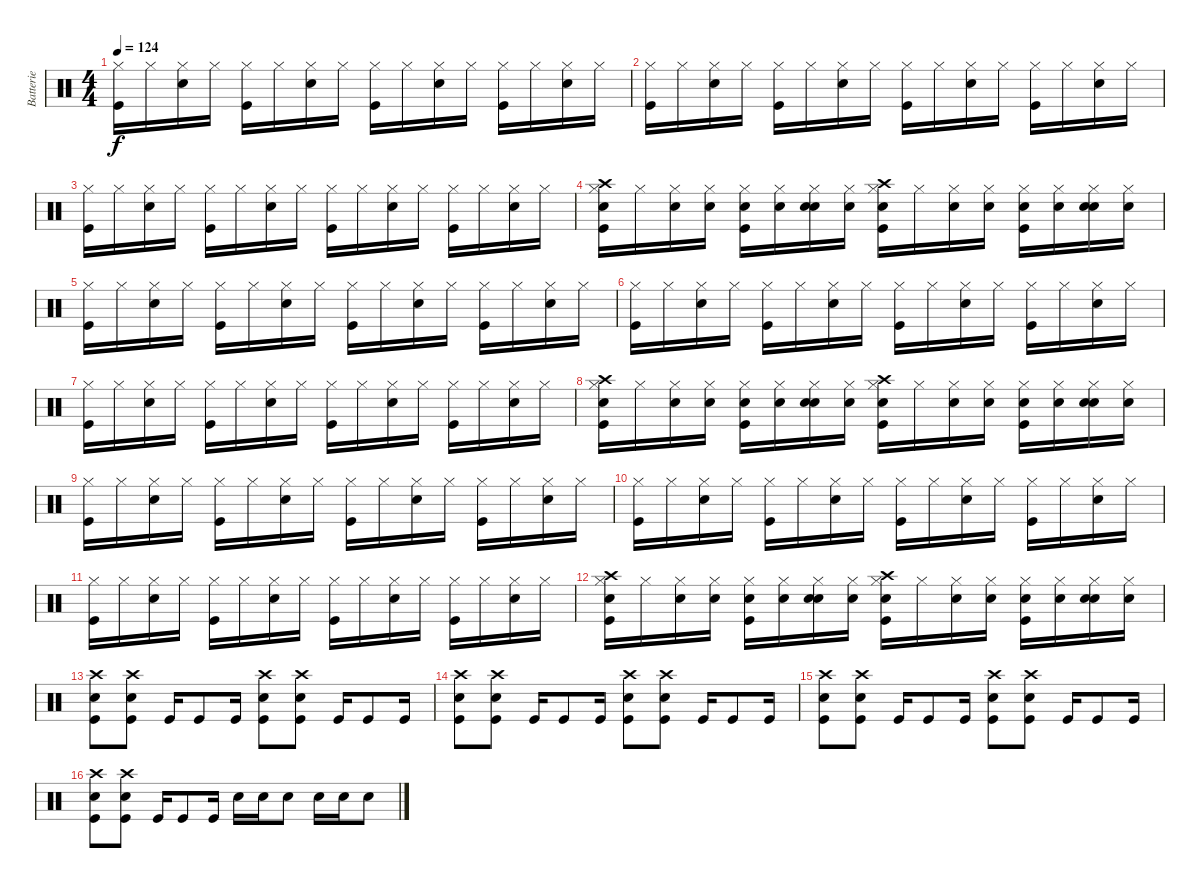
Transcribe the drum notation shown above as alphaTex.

\track ("Batterie" "Batterie") {instrument percussion}
\staff {score}
\articulation defaults
\ts (4 4)
\tempo 124
\clef neutral
\ks c
("Hi-Hat (closed)" "Kick (hit)").16{dy f} "Hi-Hat (closed)".16 ("Hi-Hat (closed)" "Snare (hit) 2").16 "Hi-Hat (closed)".16 ("Hi-Hat (closed)" "Kick (hit)").16 "Hi-Hat (closed)".16 ("Hi-Hat (closed)" "Snare (hit) 2").16 "Hi-Hat (closed)".16 ("Hi-Hat (closed)" "Kick (hit)").16 "Hi-Hat (closed)".16 ("Hi-Hat (closed)" "Snare (hit) 2").16 "Hi-Hat (closed)".16 ("Hi-Hat (closed)" "Kick (hit)").16 "Hi-Hat (closed)".16 ("Hi-Hat (closed)" "Snare (hit) 2").16 "Hi-Hat (closed)".16 |
("Hi-Hat (closed)" "Kick (hit)").16 "Hi-Hat (closed)".16 ("Hi-Hat (closed)" "Snare (hit) 2").16 "Hi-Hat (closed)".16 ("Hi-Hat (closed)" "Kick (hit)").16 "Hi-Hat (closed)".16 ("Hi-Hat (closed)" "Snare (hit) 2").16 "Hi-Hat (closed)".16 ("Hi-Hat (closed)" "Kick (hit)").16 "Hi-Hat (closed)".16 ("Hi-Hat (closed)" "Snare (hit) 2").16 "Hi-Hat (closed)".16 ("Hi-Hat (closed)" "Kick (hit)").16 "Hi-Hat (closed)".16 ("Hi-Hat (closed)" "Snare (hit) 2").16 "Hi-Hat (closed)".16 |
("Hi-Hat (closed)" "Kick (hit)").16 "Hi-Hat (closed)".16 ("Hi-Hat (closed)" "Snare (hit) 2").16 "Hi-Hat (closed)".16 ("Hi-Hat (closed)" "Kick (hit)").16 "Hi-Hat (closed)".16 ("Hi-Hat (closed)" "Snare (hit) 2").16 "Hi-Hat (closed)".16 ("Hi-Hat (closed)" "Kick (hit)").16 "Hi-Hat (closed)".16 ("Hi-Hat (closed)" "Snare (hit) 2").16 "Hi-Hat (closed)".16 ("Hi-Hat (closed)" "Kick (hit)").16 "Hi-Hat (closed)".16 ("Hi-Hat (closed)" "Snare (hit) 2").16 "Hi-Hat (closed)".16 |
("Hi-Hat (closed)" "Crash high (hit)" "Electric Snare (hit)" "Kick (hit)").16 "Hi-Hat (closed)".16 ("Hi-Hat (closed)" "Snare (hit) 2").16 ("Hi-Hat (closed)" "Electric Snare (hit)").16 ("Hi-Hat (closed)" "Electric Snare (hit)" "Kick (hit)").16 ("Hi-Hat (closed)" "Electric Snare (hit)").16 ("Hi-Hat (closed)" "Electric Snare (hit)" "Snare (hit) 2").16 ("Hi-Hat (closed)" "Electric Snare (hit)").16 ("Hi-Hat (closed)" "Crash high (hit)" "Electric Snare (hit)" "Kick (hit)").16 "Hi-Hat (closed)".16 ("Hi-Hat (closed)" "Snare (hit) 2").16 ("Hi-Hat (closed)" "Electric Snare (hit)").16 ("Hi-Hat (closed)" "Electric Snare (hit)" "Kick (hit)").16 ("Hi-Hat (closed)" "Electric Snare (hit)").16 ("Hi-Hat (closed)" "Electric Snare (hit)" "Snare (hit) 2").16 ("Hi-Hat (closed)" "Electric Snare (hit)").16 |
("Hi-Hat (closed)" "Kick (hit)").16 "Hi-Hat (closed)".16 ("Hi-Hat (closed)" "Snare (hit) 2").16 "Hi-Hat (closed)".16 ("Hi-Hat (closed)" "Kick (hit)").16 "Hi-Hat (closed)".16 ("Hi-Hat (closed)" "Snare (hit) 2").16 "Hi-Hat (closed)".16 ("Hi-Hat (closed)" "Kick (hit)").16 "Hi-Hat (closed)".16 ("Hi-Hat (closed)" "Snare (hit) 2").16 "Hi-Hat (closed)".16 ("Hi-Hat (closed)" "Kick (hit)").16 "Hi-Hat (closed)".16 ("Hi-Hat (closed)" "Snare (hit) 2").16 "Hi-Hat (closed)".16 |
("Hi-Hat (closed)" "Kick (hit)").16 "Hi-Hat (closed)".16 ("Hi-Hat (closed)" "Snare (hit) 2").16 "Hi-Hat (closed)".16 ("Hi-Hat (closed)" "Kick (hit)").16 "Hi-Hat (closed)".16 ("Hi-Hat (closed)" "Snare (hit) 2").16 "Hi-Hat (closed)".16 ("Hi-Hat (closed)" "Kick (hit)").16 "Hi-Hat (closed)".16 ("Hi-Hat (closed)" "Snare (hit) 2").16 "Hi-Hat (closed)".16 ("Hi-Hat (closed)" "Kick (hit)").16 "Hi-Hat (closed)".16 ("Hi-Hat (closed)" "Snare (hit) 2").16 "Hi-Hat (closed)".16 |
("Hi-Hat (closed)" "Kick (hit)").16 "Hi-Hat (closed)".16 ("Hi-Hat (closed)" "Snare (hit) 2").16 "Hi-Hat (closed)".16 ("Hi-Hat (closed)" "Kick (hit)").16 "Hi-Hat (closed)".16 ("Hi-Hat (closed)" "Snare (hit) 2").16 "Hi-Hat (closed)".16 ("Hi-Hat (closed)" "Kick (hit)").16 "Hi-Hat (closed)".16 ("Hi-Hat (closed)" "Snare (hit) 2").16 "Hi-Hat (closed)".16 ("Hi-Hat (closed)" "Kick (hit)").16 "Hi-Hat (closed)".16 ("Hi-Hat (closed)" "Snare (hit) 2").16 "Hi-Hat (closed)".16 |
("Hi-Hat (closed)" "Crash high (hit)" "Electric Snare (hit)" "Kick (hit)").16 "Hi-Hat (closed)".16 ("Hi-Hat (closed)" "Snare (hit) 2").16 ("Hi-Hat (closed)" "Electric Snare (hit)").16 ("Hi-Hat (closed)" "Electric Snare (hit)" "Kick (hit)").16 ("Hi-Hat (closed)" "Electric Snare (hit)").16 ("Hi-Hat (closed)" "Electric Snare (hit)" "Snare (hit) 2").16 ("Hi-Hat (closed)" "Electric Snare (hit)").16 ("Hi-Hat (closed)" "Crash high (hit)" "Electric Snare (hit)" "Kick (hit)").16 "Hi-Hat (closed)".16 ("Hi-Hat (closed)" "Snare (hit) 2").16 ("Hi-Hat (closed)" "Electric Snare (hit)").16 ("Hi-Hat (closed)" "Electric Snare (hit)" "Kick (hit)").16 ("Hi-Hat (closed)" "Electric Snare (hit)").16 ("Hi-Hat (closed)" "Electric Snare (hit)" "Snare (hit) 2").16 ("Hi-Hat (closed)" "Electric Snare (hit)").16 |
("Hi-Hat (closed)" "Kick (hit)").16 "Hi-Hat (closed)".16 ("Hi-Hat (closed)" "Snare (hit) 2").16 "Hi-Hat (closed)".16 ("Hi-Hat (closed)" "Kick (hit)").16 "Hi-Hat (closed)".16 ("Hi-Hat (closed)" "Snare (hit) 2").16 "Hi-Hat (closed)".16 ("Hi-Hat (closed)" "Kick (hit)").16 "Hi-Hat (closed)".16 ("Hi-Hat (closed)" "Snare (hit) 2").16 "Hi-Hat (closed)".16 ("Hi-Hat (closed)" "Kick (hit)").16 "Hi-Hat (closed)".16 ("Hi-Hat (closed)" "Snare (hit) 2").16 "Hi-Hat (closed)".16 |
("Hi-Hat (closed)" "Kick (hit)").16 "Hi-Hat (closed)".16 ("Hi-Hat (closed)" "Snare (hit) 2").16 "Hi-Hat (closed)".16 ("Hi-Hat (closed)" "Kick (hit)").16 "Hi-Hat (closed)".16 ("Hi-Hat (closed)" "Snare (hit) 2").16 "Hi-Hat (closed)".16 ("Hi-Hat (closed)" "Kick (hit)").16 "Hi-Hat (closed)".16 ("Hi-Hat (closed)" "Snare (hit) 2").16 "Hi-Hat (closed)".16 ("Hi-Hat (closed)" "Kick (hit)").16 "Hi-Hat (closed)".16 ("Hi-Hat (closed)" "Snare (hit) 2").16 "Hi-Hat (closed)".16 |
("Hi-Hat (closed)" "Kick (hit)").16 "Hi-Hat (closed)".16 ("Hi-Hat (closed)" "Snare (hit) 2").16 "Hi-Hat (closed)".16 ("Hi-Hat (closed)" "Kick (hit)").16 "Hi-Hat (closed)".16 ("Hi-Hat (closed)" "Snare (hit) 2").16 "Hi-Hat (closed)".16 ("Hi-Hat (closed)" "Kick (hit)").16 "Hi-Hat (closed)".16 ("Hi-Hat (closed)" "Snare (hit) 2").16 "Hi-Hat (closed)".16 ("Hi-Hat (closed)" "Kick (hit)").16 "Hi-Hat (closed)".16 ("Hi-Hat (closed)" "Snare (hit) 2").16 "Hi-Hat (closed)".16 |
("Hi-Hat (closed)" "Crash high (hit)" "Electric Snare (hit)" "Kick (hit)").16 "Hi-Hat (closed)".16 ("Hi-Hat (closed)" "Snare (hit) 2").16 ("Hi-Hat (closed)" "Electric Snare (hit)").16 ("Hi-Hat (closed)" "Electric Snare (hit)" "Kick (hit)").16 ("Hi-Hat (closed)" "Electric Snare (hit)").16 ("Hi-Hat (closed)" "Electric Snare (hit)" "Snare (hit) 2").16 ("Hi-Hat (closed)" "Electric Snare (hit)").16 ("Hi-Hat (closed)" "Crash high (hit)" "Electric Snare (hit)" "Kick (hit)").16 "Hi-Hat (closed)".16 ("Hi-Hat (closed)" "Snare (hit) 2").16 ("Hi-Hat (closed)" "Electric Snare (hit)").16 ("Hi-Hat (closed)" "Electric Snare (hit)" "Kick (hit)").16 ("Hi-Hat (closed)" "Electric Snare (hit)").16 ("Hi-Hat (closed)" "Electric Snare (hit)" "Snare (hit) 2").16 ("Hi-Hat (closed)" "Electric Snare (hit)").16 |
("Crash high (hit)" "Snare (hit) 2" "Kick (hit)").8 ("Crash high (hit)" "Snare (hit) 2" "Kick (hit)").8 "Kick (hit)".16 "Kick (hit)".8 "Kick (hit)".16 ("Crash high (hit)" "Snare (hit) 2" "Kick (hit)").8 ("Crash high (hit)" "Snare (hit) 2" "Kick (hit)").8 "Kick (hit)".16 "Kick (hit)".8 "Kick (hit)".16 |
("Crash high (hit)" "Snare (hit) 2" "Kick (hit)").8 ("Crash high (hit)" "Snare (hit) 2" "Kick (hit)").8 "Kick (hit)".16 "Kick (hit)".8 "Kick (hit)".16 ("Crash high (hit)" "Snare (hit) 2" "Kick (hit)").8 ("Crash high (hit)" "Snare (hit) 2" "Kick (hit)").8 "Kick (hit)".16 "Kick (hit)".8 "Kick (hit)".16 |
("Crash high (hit)" "Snare (hit) 2" "Kick (hit)").8 ("Crash high (hit)" "Snare (hit) 2" "Kick (hit)").8 "Kick (hit)".16 "Kick (hit)".8 "Kick (hit)".16 ("Crash high (hit)" "Snare (hit) 2" "Kick (hit)").8 ("Crash high (hit)" "Snare (hit) 2" "Kick (hit)").8 "Kick (hit)".16 "Kick (hit)".8 "Kick (hit)".16 |
("Crash high (hit)" "Snare (hit) 2" "Kick (hit)").8 ("Crash high (hit)" "Snare (hit) 2" "Kick (hit)").8 "Kick (hit)".16 "Kick (hit)".8 "Kick (hit)".16 "Snare (hit) 2".16 "Snare (hit) 2".16 "Snare (hit) 2".8 "Snare (hit) 2".16 "Snare (hit) 2".16 "Snare (hit) 2".8
